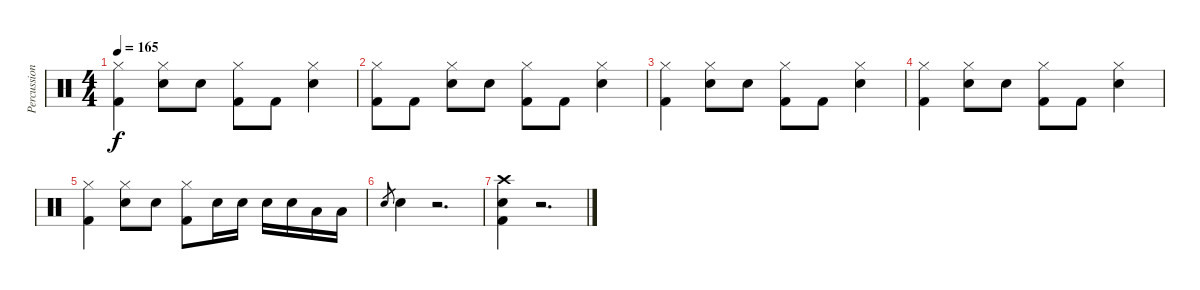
\track ("Percussions" "Percussion") {instrument percussion}
\staff {score}
\articulation defaults
\ts (4 4)
\tempo 165
\clef neutral
\ks c
("Hi-Hat (closed)" "Kick (hit) 2").4{dy f} ("Hi-Hat (closed)" "Electric Snare (hit)").8 "Electric Snare (hit)".8 ("Hi-Hat (closed)" "Kick (hit) 2").8 "Kick (hit) 2".8 ("Hi-Hat (closed)" "Electric Snare (hit)").4 |
("Hi-Hat (closed)" "Kick (hit) 2").8 "Kick (hit) 2".8 ("Hi-Hat (closed)" "Electric Snare (hit)").8 "Electric Snare (hit)".8 ("Hi-Hat (closed)" "Kick (hit) 2").8 "Kick (hit) 2".8 ("Hi-Hat (closed)" "Electric Snare (hit)").4 |
("Hi-Hat (closed)" "Kick (hit) 2").4 ("Hi-Hat (closed)" "Electric Snare (hit)").8 "Electric Snare (hit)".8 ("Hi-Hat (closed)" "Kick (hit) 2").8 "Kick (hit) 2".8 ("Hi-Hat (closed)" "Electric Snare (hit)").4 |
("Hi-Hat (closed)" "Kick (hit) 2").4 ("Hi-Hat (closed)" "Electric Snare (hit)").8 "Electric Snare (hit)".8 ("Hi-Hat (closed)" "Kick (hit) 2").8 "Kick (hit) 2".8 ("Hi-Hat (closed)" "Electric Snare (hit)").4 |
("Hi-Hat (closed)" "Kick (hit) 2").4 ("Hi-Hat (closed)" "Electric Snare (hit)").8 "Electric Snare (hit)".8 ("Hi-Hat (closed)" "Kick (hit) 2").8 "Electric Snare (hit)".16 "Electric Snare (hit)".16 "Electric Snare (hit)".16 "Electric Snare (hit)".16 "Low Tom (hit)".16 "Low Tom (hit)".16 |
"Electric Snare (hit)".8{gr} "Electric Snare (hit)".4 r.2{d} |
("Crash high (hit)" "Electric Snare (hit)" "Kick (hit) 2").4 r.2{d}
